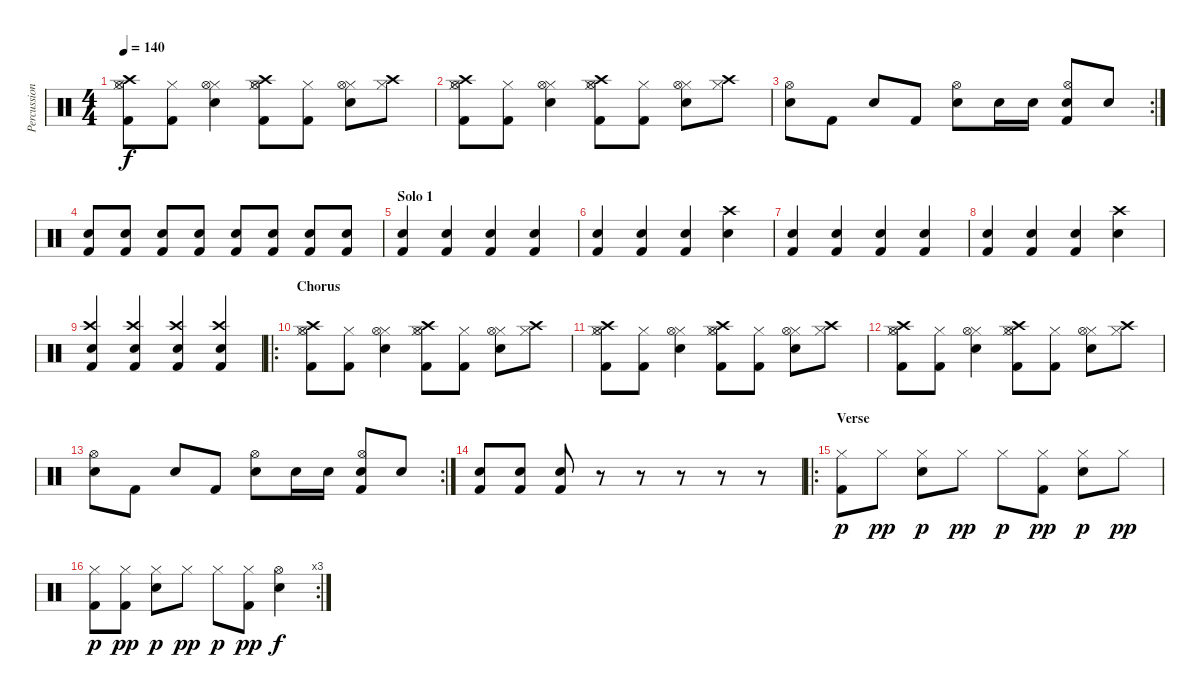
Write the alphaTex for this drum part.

\track ("Percussions" "Percussion") {instrument percussion}
\staff {score}
\articulation defaults
\ts (4 4)
\tempo 140
\clef neutral
\ks c
("Hi-Hat (closed)" "Kick (hit) 2" "Hi-Hat (open)" "Crash high (hit)").8{dy f} ("Hi-Hat (closed)" "Kick (hit) 2").8 ("Hi-Hat (closed)" "Electric Snare (hit)" "Hi-Hat (open)").4 ("Hi-Hat (closed)" "Kick (hit) 2" "Hi-Hat (open)" "Crash high (hit)").8 ("Hi-Hat (closed)" "Kick (hit) 2").8 ("Hi-Hat (closed)" "Electric Snare (hit)" "Hi-Hat (open)").8 ("Hi-Hat (closed)" "Crash high (hit)").8 |
("Hi-Hat (closed)" "Kick (hit) 2" "Hi-Hat (open)" "Crash high (hit)").8 ("Hi-Hat (closed)" "Kick (hit) 2").8 ("Hi-Hat (closed)" "Electric Snare (hit)" "Hi-Hat (open)").4 ("Hi-Hat (closed)" "Kick (hit) 2" "Hi-Hat (open)" "Crash high (hit)").8 ("Hi-Hat (closed)" "Kick (hit) 2").8 ("Hi-Hat (closed)" "Electric Snare (hit)" "Hi-Hat (open)").8 ("Hi-Hat (closed)" "Crash high (hit)").8 |
\rc 2
("Electric Snare (hit)" "Hi-Hat (open)").8 "Kick (hit) 2".8 "Electric Snare (hit)".8 "Kick (hit) 2".8 ("Electric Snare (hit)" "Hi-Hat (open)").8 "Electric Snare (hit)".16 "Electric Snare (hit)".16 ("Electric Snare (hit)" "Kick (hit) 2" "Hi-Hat (open)").8 "Electric Snare (hit)".8 |
("Electric Snare (hit)" "Kick (hit) 2").8 ("Electric Snare (hit)" "Kick (hit) 2").8 ("Electric Snare (hit)" "Kick (hit) 2").8 ("Electric Snare (hit)" "Kick (hit) 2").8 ("Electric Snare (hit)" "Kick (hit) 2").8 ("Electric Snare (hit)" "Kick (hit) 2").8 ("Electric Snare (hit)" "Kick (hit) 2").8 ("Electric Snare (hit)" "Kick (hit) 2").8 |
\section ("" "Solo 1")
("Electric Snare (hit)" "Kick (hit) 2").4 ("Electric Snare (hit)" "Kick (hit) 2").4 ("Electric Snare (hit)" "Kick (hit) 2").4 ("Electric Snare (hit)" "Kick (hit) 2").4 |
("Electric Snare (hit)" "Kick (hit) 2").4 ("Electric Snare (hit)" "Kick (hit) 2").4 ("Electric Snare (hit)" "Kick (hit) 2").4 ("Electric Snare (hit)" "Crash high (hit)").4 |
("Electric Snare (hit)" "Kick (hit) 2").4 ("Electric Snare (hit)" "Kick (hit) 2").4 ("Electric Snare (hit)" "Kick (hit) 2").4 ("Electric Snare (hit)" "Kick (hit) 2").4 |
("Electric Snare (hit)" "Kick (hit) 2").4 ("Electric Snare (hit)" "Kick (hit) 2").4 ("Electric Snare (hit)" "Kick (hit) 2").4 ("Electric Snare (hit)" "Crash high (hit)").4 |
("Electric Snare (hit)" "Kick (hit) 2" "Crash high (hit)").4 ("Electric Snare (hit)" "Kick (hit) 2" "Crash high (hit)").4 ("Electric Snare (hit)" "Kick (hit) 2" "Crash high (hit)").4 ("Electric Snare (hit)" "Kick (hit) 2" "Crash high (hit)").4 |
\ro
\section ("" "Chorus")
("Hi-Hat (closed)" "Kick (hit) 2" "Hi-Hat (open)" "Crash high (hit)").8 ("Hi-Hat (closed)" "Kick (hit) 2").8 ("Hi-Hat (closed)" "Electric Snare (hit)" "Hi-Hat (open)").4 ("Hi-Hat (closed)" "Kick (hit) 2" "Hi-Hat (open)" "Crash high (hit)").8 ("Hi-Hat (closed)" "Kick (hit) 2").8 ("Hi-Hat (closed)" "Electric Snare (hit)" "Hi-Hat (open)").8 ("Hi-Hat (closed)" "Crash high (hit)").8 |
("Hi-Hat (closed)" "Kick (hit) 2" "Hi-Hat (open)" "Crash high (hit)").8 ("Hi-Hat (closed)" "Kick (hit) 2").8 ("Hi-Hat (closed)" "Electric Snare (hit)" "Hi-Hat (open)").4 ("Hi-Hat (closed)" "Kick (hit) 2" "Hi-Hat (open)" "Crash high (hit)").8 ("Hi-Hat (closed)" "Kick (hit) 2").8 ("Hi-Hat (closed)" "Electric Snare (hit)" "Hi-Hat (open)").8 ("Hi-Hat (closed)" "Crash high (hit)").8 |
("Hi-Hat (closed)" "Kick (hit) 2" "Hi-Hat (open)" "Crash high (hit)").8 ("Hi-Hat (closed)" "Kick (hit) 2").8 ("Hi-Hat (closed)" "Electric Snare (hit)" "Hi-Hat (open)").4 ("Hi-Hat (closed)" "Kick (hit) 2" "Hi-Hat (open)" "Crash high (hit)").8 ("Hi-Hat (closed)" "Kick (hit) 2").8 ("Hi-Hat (closed)" "Electric Snare (hit)" "Hi-Hat (open)").8 ("Hi-Hat (closed)" "Crash high (hit)").8 |
\rc 2
("Electric Snare (hit)" "Hi-Hat (open)").8 "Kick (hit) 2".8 "Electric Snare (hit)".8 "Kick (hit) 2".8 ("Electric Snare (hit)" "Hi-Hat (open)").8 "Electric Snare (hit)".16 "Electric Snare (hit)".16 ("Electric Snare (hit)" "Kick (hit) 2" "Hi-Hat (open)").8 "Electric Snare (hit)".8 |
("Electric Snare (hit)" "Kick (hit) 2").8 ("Electric Snare (hit)" "Kick (hit) 2").8 ("Electric Snare (hit)" "Kick (hit) 2").8 r.8 r.8 r.8 r.8 r.8 |
\ro
\section ("" "Verse")
("Hi-Hat (closed)" "Kick (hit) 2").8{dy p} "Hi-Hat (closed)".8{dy pp} ("Hi-Hat (closed)" "Electric Snare (hit)").8{dy p} "Hi-Hat (closed)".8{dy pp} "Hi-Hat (closed)".8{dy p} ("Hi-Hat (closed)" "Kick (hit) 2").8{dy pp} ("Hi-Hat (closed)" "Electric Snare (hit)").8{dy p} "Hi-Hat (closed)".8{dy pp} |
\rc 3
("Hi-Hat (closed)" "Kick (hit) 2").8{dy p} ("Hi-Hat (closed)" "Kick (hit) 2").8{dy pp} ("Hi-Hat (closed)" "Electric Snare (hit)").8{dy p} "Hi-Hat (closed)".8{dy pp} "Hi-Hat (closed)".8{dy p} ("Hi-Hat (closed)" "Kick (hit) 2").8{dy pp} ("Hi-Hat (open)" "Electric Snare (hit)").4{dy f}
